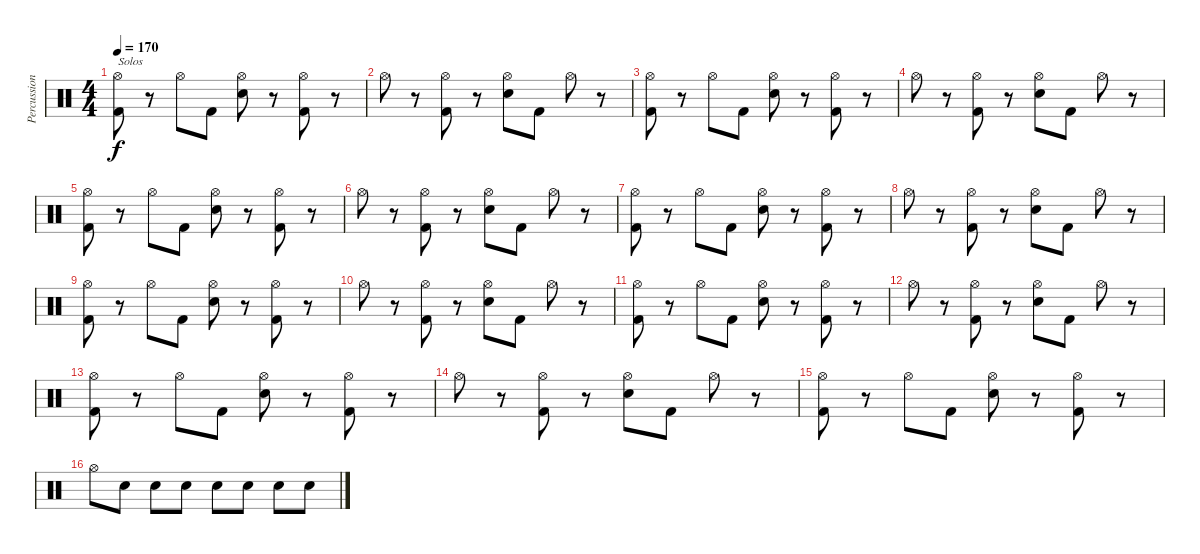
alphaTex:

\track ("Percussion" "Percussion") {instrument percussion}
\staff {score}
\articulation defaults
\ts (4 4)
\tempo 170
\clef neutral
\ks c
("Hi-Hat (open)" "Kick (hit) 2").8{txt "Solos" dy f} r.8 "Hi-Hat (open)".8 "Kick (hit) 2".8 ("Hi-Hat (open)" "Snare (hit) 2").8 r.8 ("Hi-Hat (open)" "Kick (hit) 2").8 r.8 |
"Hi-Hat (open)".8 r.8 ("Hi-Hat (open)" "Kick (hit) 2").8 r.8 ("Hi-Hat (open)" "Snare (hit) 2").8 "Kick (hit) 2".8 "Hi-Hat (open)".8 r.8 |
("Hi-Hat (open)" "Kick (hit) 2").8 r.8 "Hi-Hat (open)".8 "Kick (hit) 2".8 ("Hi-Hat (open)" "Snare (hit) 2").8 r.8 ("Hi-Hat (open)" "Kick (hit) 2").8 r.8 |
"Hi-Hat (open)".8 r.8 ("Hi-Hat (open)" "Kick (hit) 2").8 r.8 ("Hi-Hat (open)" "Snare (hit) 2").8 "Kick (hit) 2".8 "Hi-Hat (open)".8 r.8 |
("Hi-Hat (open)" "Kick (hit) 2").8 r.8 "Hi-Hat (open)".8 "Kick (hit) 2".8 ("Hi-Hat (open)" "Snare (hit) 2").8 r.8 ("Hi-Hat (open)" "Kick (hit) 2").8 r.8 |
"Hi-Hat (open)".8 r.8 ("Hi-Hat (open)" "Kick (hit) 2").8 r.8 ("Hi-Hat (open)" "Snare (hit) 2").8 "Kick (hit) 2".8 "Hi-Hat (open)".8 r.8 |
("Hi-Hat (open)" "Kick (hit) 2").8 r.8 "Hi-Hat (open)".8 "Kick (hit) 2".8 ("Hi-Hat (open)" "Snare (hit) 2").8 r.8 ("Hi-Hat (open)" "Kick (hit) 2").8 r.8 |
"Hi-Hat (open)".8 r.8 ("Hi-Hat (open)" "Kick (hit) 2").8 r.8 ("Hi-Hat (open)" "Snare (hit) 2").8 "Kick (hit) 2".8 "Hi-Hat (open)".8 r.8 |
("Hi-Hat (open)" "Kick (hit) 2").8 r.8 "Hi-Hat (open)".8 "Kick (hit) 2".8 ("Hi-Hat (open)" "Snare (hit) 2").8 r.8 ("Hi-Hat (open)" "Kick (hit) 2").8 r.8 |
"Hi-Hat (open)".8 r.8 ("Hi-Hat (open)" "Kick (hit) 2").8 r.8 ("Hi-Hat (open)" "Snare (hit) 2").8 "Kick (hit) 2".8 "Hi-Hat (open)".8 r.8 |
("Hi-Hat (open)" "Kick (hit) 2").8 r.8 "Hi-Hat (open)".8 "Kick (hit) 2".8 ("Hi-Hat (open)" "Snare (hit) 2").8 r.8 ("Hi-Hat (open)" "Kick (hit) 2").8 r.8 |
"Hi-Hat (open)".8 r.8 ("Hi-Hat (open)" "Kick (hit) 2").8 r.8 ("Hi-Hat (open)" "Snare (hit) 2").8 "Kick (hit) 2".8 "Hi-Hat (open)".8 r.8 |
("Hi-Hat (open)" "Kick (hit) 2").8 r.8 "Hi-Hat (open)".8 "Kick (hit) 2".8 ("Hi-Hat (open)" "Snare (hit) 2").8 r.8 ("Hi-Hat (open)" "Kick (hit) 2").8 r.8 |
"Hi-Hat (open)".8 r.8 ("Hi-Hat (open)" "Kick (hit) 2").8 r.8 ("Hi-Hat (open)" "Snare (hit) 2").8 "Kick (hit) 2".8 "Hi-Hat (open)".8 r.8 |
("Hi-Hat (open)" "Kick (hit) 2").8 r.8 "Hi-Hat (open)".8 "Kick (hit) 2".8 ("Hi-Hat (open)" "Snare (hit) 2").8 r.8 ("Hi-Hat (open)" "Kick (hit) 2").8 r.8 |
"Hi-Hat (open)".8 "Snare (hit) 2".8 "Snare (hit) 2".8 "Snare (hit) 2".8 "Snare (hit) 2".8 "Snare (hit) 2".8 "Snare (hit) 2".8 "Snare (hit) 2".8
